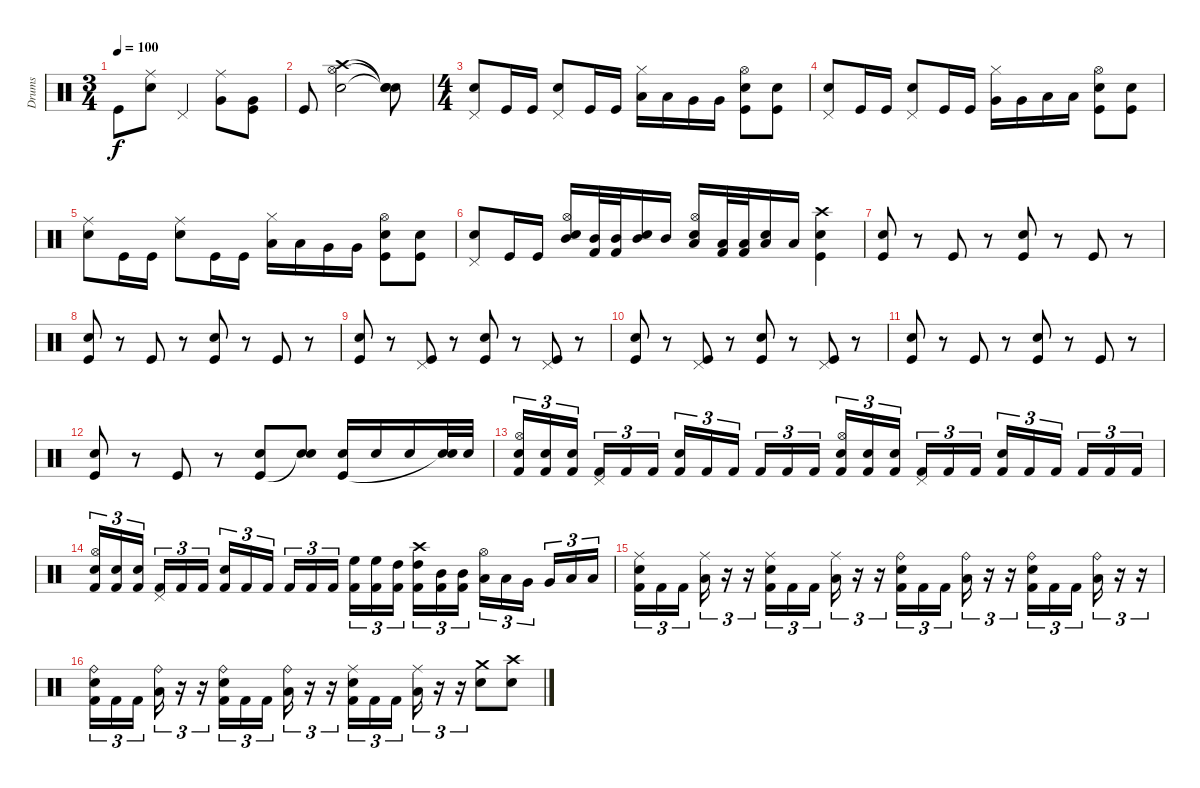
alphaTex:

\track ("Drums" "Drums") {instrument percussion}
\staff {score}
\articulation defaults
\ts (3 4)
\tempo 100
\clef neutral
\ks c "Kick (hit)".8{dy f}
("Ride (middle)" "Snare (hit) 2").8 "Pedal Hi-Hat (hit)".4 ("Ride (middle)" "Very Low Tom (hit)").8 ("Very Low Tom (hit)" "Kick (hit)").8 |
"Kick (hit)".8 ("Crash high (hit)" "Hi-Hat (open)" "Snare (hit) 2").2 ("Snare (hit)"{t} "Snare (hit)"{t} "Snare (hit)"{t}).8 |
\ts (4 4)
("Pedal Hi-Hat (hit)" "Snare (hit) 2").8 "Kick (hit)".16 "Kick (hit)".16 ("Pedal Hi-Hat (hit)" "Snare (hit) 2").8 "Kick (hit)".16 "Kick (hit)".16 ("Hi-Hat (closed)" "Low Tom (hit)").16 "Low Tom (hit)".16 "Very Low Tom (hit)".16 "Very Low Tom (hit)".16 ("Hi-Hat (open)" "Snare (hit) 2" "Kick (hit)").8 ("Snare (hit) 2" "Kick (hit)").8 |
("Pedal Hi-Hat (hit)" "Snare (hit) 2").8 "Kick (hit)".16 "Kick (hit)".16 ("Pedal Hi-Hat (hit)" "Snare (hit) 2").8 "Kick (hit)".16 "Kick (hit)".16 ("Hi-Hat (closed)" "Very Low Tom (hit)").16 "Very Low Tom (hit)".16 "Low Floor Tom (hit)".16 "Low Floor Tom (hit)".16 ("Hi-Hat (open)" "Snare (hit) 2" "Kick (hit)").8 ("Snare (hit) 2" "Kick (hit)").8 |
("Ride (middle)" "Snare (hit) 2").8 "Kick (hit)".16 "Kick (hit)".16 ("Ride (middle)" "Snare (hit) 2").8 "Kick (hit)".16 "Kick (hit)".16 ("Hi-Hat (closed)" "Low Tom (hit)").16 "Low Tom (hit)".16 "Very Low Tom (hit)".16 "Very Low Tom (hit)".16 ("Hi-Hat (open)" "Snare (hit) 2" "Kick (hit)").8 ("Snare (hit) 2" "Kick (hit)").8 |
("Pedal Hi-Hat (hit)" "Snare (hit) 2").8 "Kick (hit)".16 "Kick (hit)".16 ("Hi-Hat (open)" "Mid Tom (hit)" "Snare (hit) 2").16 ("Mid Tom (hit)" "Kick (hit) 2").32 ("Mid Tom (hit)" "Kick (hit) 2").32 ("Mid Tom (hit)" "Snare (hit) 2").16 "Mid Tom (hit)".16 ("Hi-Hat (open)" "Low Tom (hit)" "Snare (hit) 2").16 ("Low Tom (hit)" "Kick (hit) 2").32 ("Low Tom (hit)" "Kick (hit) 2").32 ("Low Tom (hit)" "Snare (hit) 2").16 "Low Tom (hit)".16 ("Crash high (hit)" "Snare (hit) 2" "Kick (hit)").4 |
("Snare (hit) 2" "Kick (hit)").8 r.8 "Kick (hit)".8 r.8 ("Snare (hit) 2" "Kick (hit)").8 r.8 "Kick (hit)".8 r.8 |
("Snare (hit) 2" "Kick (hit)").8 r.8 "Kick (hit)".8 r.8 ("Snare (hit) 2" "Kick (hit)").8 r.8 "Kick (hit)".8 r.8 |
("Snare (hit) 2" "Kick (hit)").8 r.8 ("Pedal Hi-Hat (hit)" "Kick (hit)").8 r.8 ("Snare (hit) 2" "Kick (hit)").8 r.8 ("Pedal Hi-Hat (hit)" "Kick (hit)").8 r.8 |
("Snare (hit) 2" "Kick (hit)").8 r.8 ("Pedal Hi-Hat (hit)" "Kick (hit)").8 r.8 ("Snare (hit) 2" "Kick (hit)").8 r.8 ("Pedal Hi-Hat (hit)" "Kick (hit)").8 r.8 |
("Snare (hit) 2" "Kick (hit)").8 r.8 "Kick (hit)".8 r.8 ("Snare (hit) 2" "Kick (hit)").8 r.8 "Kick (hit)".8 r.8 |
("Snare (hit) 2" "Kick (hit)").8 r.8 "Kick (hit)".8 r.8 ("Snare (hit) 2" "Kick (hit)").8 ("Snare (hit) 2" "Snare (hit)"{t}).8 ("Snare (hit) 2" "Kick (hit)").16 "Snare (hit) 2".16 "Snare (hit) 2".16 ("Snare (hit) 2" "Snare (hit)"{t}).32 "Snare (hit) 2".32 |
("Hi-Hat (open)" "Snare (hit) 2" "Kick (hit) 2").16{tu (3 2) volume 12} ("Snare (hit) 2" "Kick (hit) 2").16{tu (3 2)} ("Snare (hit) 2" "Kick (hit) 2").16{tu (3 2)} ("Pedal Hi-Hat (hit)" "Kick (hit) 2").16{tu (3 2)} "Kick (hit) 2".16{tu (3 2)} "Kick (hit) 2".16{tu (3 2)} ("Snare (hit) 2" "Kick (hit) 2").16{tu (3 2)} "Kick (hit) 2".16{tu (3 2)} "Kick (hit) 2".16{tu (3 2)} "Kick (hit) 2".16{tu (3 2)} "Kick (hit) 2".16{tu (3 2)} "Kick (hit) 2".16{tu (3 2)} ("Hi-Hat (open)" "Snare (hit) 2" "Kick (hit) 2").16{tu (3 2)} ("Snare (hit) 2" "Kick (hit) 2").16{tu (3 2)} ("Snare (hit) 2" "Kick (hit) 2").16{tu (3 2)} ("Pedal Hi-Hat (hit)" "Kick (hit) 2").16{tu (3 2)} "Kick (hit) 2".16{tu (3 2)} "Kick (hit) 2".16{tu (3 2)} ("Snare (hit) 2" "Kick (hit) 2").16{tu (3 2)} "Kick (hit) 2".16{tu (3 2)} "Kick (hit) 2".16{tu (3 2)} "Kick (hit) 2".16{tu (3 2)} "Kick (hit) 2".16{tu (3 2)} "Kick (hit) 2".16{tu (3 2)} |
("Hi-Hat (open)" "Snare (hit) 2" "Kick (hit) 2").16{tu (3 2)} ("Snare (hit) 2" "Kick (hit) 2").16{tu (3 2)} ("Snare (hit) 2" "Kick (hit) 2").16{tu (3 2)} ("Pedal Hi-Hat (hit)" "Kick (hit) 2").16{tu (3 2)} "Kick (hit) 2".16{tu (3 2)} "Kick (hit) 2".16{tu (3 2)} ("Snare (hit) 2" "Kick (hit) 2").16{tu (3 2)} "Kick (hit) 2".16{tu (3 2)} "Kick (hit) 2".16{tu (3 2)} "Kick (hit) 2".16{tu (3 2)} "Kick (hit) 2".16{tu (3 2)} "Kick (hit) 2".16{tu (3 2)} ("High Floor Tom (hit)" "Kick (hit) 2").16{tu (3 2)} ("High Floor Tom (hit)" "Kick (hit) 2").16{tu (3 2)} ("High Tom (hit)" "Kick (hit) 2").16{tu (3 2)} ("Crash high (hit)" "High Tom (hit)" "Kick (hit) 2").16{tu (3 2)} ("Mid Tom (hit)" "Kick (hit) 2").16{tu (3 2)} ("Mid Tom (hit)" "Kick (hit) 2").16{tu (3 2)} ("Hi-Hat (open)" "Low Tom (hit)").16{tu (3 2)} "Low Tom (hit)".16{tu (3 2)} "Very Low Tom (hit)".16{tu (3 2)} "Very Low Tom (hit)".16{tu (3 2)} "Low Floor Tom (hit)".16{tu (3 2)} "Low Floor Tom (hit)".16{tu (3 2)} |
("Ride (middle)" "Snare (hit) 2" "Kick (hit) 2").16{tu (3 2)} "Kick (hit) 2".16{tu (3 2)} "Kick (hit) 2".16{tu (3 2)} ("Ride (middle)" "Low Floor Tom (hit)").16{tu (3 2)} r.16{tu (3 2)} r.16{tu (3 2)} ("Ride (middle)" "Snare (hit) 2" "Kick (hit) 2").16{tu (3 2)} "Kick (hit) 2".16{tu (3 2)} "Kick (hit) 2".16{tu (3 2)} ("Ride (middle)" "Low Floor Tom (hit)").16{tu (3 2)} r.16{tu (3 2)} r.16{tu (3 2)} ("Ride (bell)" "Snare (hit) 2" "Kick (hit) 2").16{tu (3 2)} "Kick (hit) 2".16{tu (3 2)} "Kick (hit) 2".16{tu (3 2)} ("Ride (bell)" "Low Floor Tom (hit)").16{tu (3 2)} r.16{tu (3 2)} r.16{tu (3 2)} ("Ride (bell)" "Snare (hit) 2" "Kick (hit) 2").16{tu (3 2)} "Kick (hit) 2".16{tu (3 2)} "Kick (hit) 2".16{tu (3 2)} ("Ride (bell)" "Low Floor Tom (hit)").16{tu (3 2)} r.16{tu (3 2)} r.16{tu (3 2)} |
("Ride (bell)" "Snare (hit) 2" "Kick (hit) 2").16{tu (3 2)} "Kick (hit) 2".16{tu (3 2)} "Kick (hit) 2".16{tu (3 2)} ("Ride (bell)" "Low Floor Tom (hit)").16{tu (3 2)} r.16{tu (3 2)} r.16{tu (3 2)} ("Ride (bell)" "Snare (hit) 2" "Kick (hit) 2").16{tu (3 2)} "Kick (hit) 2".16{tu (3 2)} "Kick (hit) 2".16{tu (3 2)} ("Ride (bell)" "Low Floor Tom (hit)").16{tu (3 2)} r.16{tu (3 2)} r.16{tu (3 2)} ("Ride (middle)" "Snare (hit) 2" "Kick (hit) 2").16{tu (3 2)} "Kick (hit) 2".16{tu (3 2)} "Kick (hit) 2".16{tu (3 2)} ("Ride (middle)" "Low Floor Tom (hit)").16{tu (3 2)} r.16{tu (3 2)} r.16{tu (3 2)} ("Crash medium (hit)" "Snare (hit) 2").8 ("Crash high (hit)" "Snare (hit) 2").8
